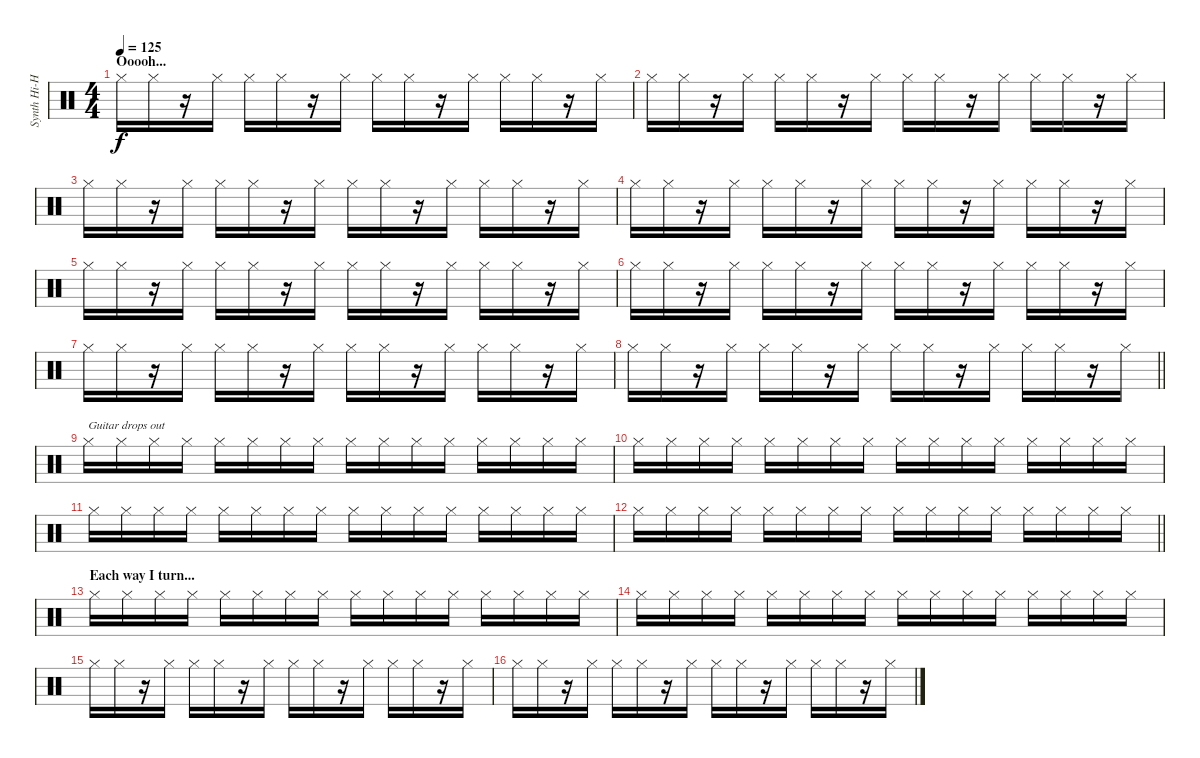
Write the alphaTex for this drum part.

\track ("Synth Hi-Hat (Gillian Gilbert)" "Synth Hi-H") {instrument percussion}
\staff {score}
\articulation defaults
\ts (4 4)
\section ("" "Ooooh...")
\tempo 125
\clef neutral
\ks c "Hi-Hat (closed)".16{dy f} "Hi-Hat (closed)".16
r.16 "Hi-Hat (closed)".16 "Hi-Hat (closed)".16 "Hi-Hat (closed)".16 r.16 "Hi-Hat (closed)".16 "Hi-Hat (closed)".16 "Hi-Hat (closed)".16 r.16 "Hi-Hat (closed)".16 "Hi-Hat (closed)".16 "Hi-Hat (closed)".16 r.16 "Hi-Hat (closed)".16 |
"Hi-Hat (closed)".16 "Hi-Hat (closed)".16 r.16 "Hi-Hat (closed)".16 "Hi-Hat (closed)".16 "Hi-Hat (closed)".16 r.16 "Hi-Hat (closed)".16 "Hi-Hat (closed)".16 "Hi-Hat (closed)".16 r.16 "Hi-Hat (closed)".16 "Hi-Hat (closed)".16 "Hi-Hat (closed)".16 r.16 "Hi-Hat (closed)".16 |
"Hi-Hat (closed)".16 "Hi-Hat (closed)".16 r.16 "Hi-Hat (closed)".16 "Hi-Hat (closed)".16 "Hi-Hat (closed)".16 r.16 "Hi-Hat (closed)".16 "Hi-Hat (closed)".16 "Hi-Hat (closed)".16 r.16 "Hi-Hat (closed)".16 "Hi-Hat (closed)".16 "Hi-Hat (closed)".16 r.16 "Hi-Hat (closed)".16 |
"Hi-Hat (closed)".16 "Hi-Hat (closed)".16 r.16 "Hi-Hat (closed)".16 "Hi-Hat (closed)".16 "Hi-Hat (closed)".16 r.16 "Hi-Hat (closed)".16 "Hi-Hat (closed)".16 "Hi-Hat (closed)".16 r.16 "Hi-Hat (closed)".16 "Hi-Hat (closed)".16 "Hi-Hat (closed)".16 r.16 "Hi-Hat (closed)".16 |
"Hi-Hat (closed)".16 "Hi-Hat (closed)".16 r.16 "Hi-Hat (closed)".16 "Hi-Hat (closed)".16 "Hi-Hat (closed)".16 r.16 "Hi-Hat (closed)".16 "Hi-Hat (closed)".16 "Hi-Hat (closed)".16 r.16 "Hi-Hat (closed)".16 "Hi-Hat (closed)".16 "Hi-Hat (closed)".16 r.16 "Hi-Hat (closed)".16 |
"Hi-Hat (closed)".16 "Hi-Hat (closed)".16 r.16 "Hi-Hat (closed)".16 "Hi-Hat (closed)".16 "Hi-Hat (closed)".16 r.16 "Hi-Hat (closed)".16 "Hi-Hat (closed)".16 "Hi-Hat (closed)".16 r.16 "Hi-Hat (closed)".16 "Hi-Hat (closed)".16 "Hi-Hat (closed)".16 r.16 "Hi-Hat (closed)".16 |
"Hi-Hat (closed)".16 "Hi-Hat (closed)".16 r.16 "Hi-Hat (closed)".16 "Hi-Hat (closed)".16 "Hi-Hat (closed)".16 r.16 "Hi-Hat (closed)".16 "Hi-Hat (closed)".16 "Hi-Hat (closed)".16 r.16 "Hi-Hat (closed)".16 "Hi-Hat (closed)".16 "Hi-Hat (closed)".16 r.16 "Hi-Hat (closed)".16 |
\barLineRight lightlight "Hi-Hat (closed)".16 "Hi-Hat (closed)".16
r.16 "Hi-Hat (closed)".16 "Hi-Hat (closed)".16 "Hi-Hat (closed)".16 r.16 "Hi-Hat (closed)".16 "Hi-Hat (closed)".16 "Hi-Hat (closed)".16 r.16 "Hi-Hat (closed)".16 "Hi-Hat (closed)".16 "Hi-Hat (closed)".16 r.16 "Hi-Hat (closed)".16 |
"Hi-Hat (closed)".16{txt "Guitar drops out"} "Hi-Hat (closed)".16 "Hi-Hat (closed)".16 "Hi-Hat (closed)".16 "Hi-Hat (closed)".16 "Hi-Hat (closed)".16 "Hi-Hat (closed)".16 "Hi-Hat (closed)".16 "Hi-Hat (closed)".16 "Hi-Hat (closed)".16 "Hi-Hat (closed)".16 "Hi-Hat (closed)".16 "Hi-Hat (closed)".16 "Hi-Hat (closed)".16 "Hi-Hat (closed)".16 "Hi-Hat (closed)".16 |
"Hi-Hat (closed)".16 "Hi-Hat (closed)".16 "Hi-Hat (closed)".16 "Hi-Hat (closed)".16 "Hi-Hat (closed)".16 "Hi-Hat (closed)".16 "Hi-Hat (closed)".16 "Hi-Hat (closed)".16 "Hi-Hat (closed)".16 "Hi-Hat (closed)".16 "Hi-Hat (closed)".16 "Hi-Hat (closed)".16 "Hi-Hat (closed)".16 "Hi-Hat (closed)".16 "Hi-Hat (closed)".16 "Hi-Hat (closed)".16 |
"Hi-Hat (closed)".16 "Hi-Hat (closed)".16 "Hi-Hat (closed)".16 "Hi-Hat (closed)".16 "Hi-Hat (closed)".16 "Hi-Hat (closed)".16 "Hi-Hat (closed)".16 "Hi-Hat (closed)".16 "Hi-Hat (closed)".16 "Hi-Hat (closed)".16 "Hi-Hat (closed)".16 "Hi-Hat (closed)".16 "Hi-Hat (closed)".16 "Hi-Hat (closed)".16 "Hi-Hat (closed)".16 "Hi-Hat (closed)".16 |
\barLineRight lightlight "Hi-Hat (closed)".16 "Hi-Hat (closed)".16 "Hi-Hat (closed)".16 "Hi-Hat (closed)".16 "Hi-Hat (closed)".16 "Hi-Hat (closed)".16 "Hi-Hat (closed)".16 "Hi-Hat (closed)".16 "Hi-Hat (closed)".16 "Hi-Hat (closed)".16 "Hi-Hat (closed)".16 "Hi-Hat (closed)".16 "Hi-Hat (closed)".16 "Hi-Hat (closed)".16 "Hi-Hat (closed)".16 "Hi-Hat (closed)".16
|
\section ("" "Each way I turn...")
"Hi-Hat (closed)".16 "Hi-Hat (closed)".16 "Hi-Hat (closed)".16 "Hi-Hat (closed)".16 "Hi-Hat (closed)".16 "Hi-Hat (closed)".16 "Hi-Hat (closed)".16 "Hi-Hat (closed)".16 "Hi-Hat (closed)".16 "Hi-Hat (closed)".16 "Hi-Hat (closed)".16 "Hi-Hat (closed)".16 "Hi-Hat (closed)".16 "Hi-Hat (closed)".16 "Hi-Hat (closed)".16 "Hi-Hat (closed)".16 |
"Hi-Hat (closed)".16 "Hi-Hat (closed)".16 "Hi-Hat (closed)".16 "Hi-Hat (closed)".16 "Hi-Hat (closed)".16 "Hi-Hat (closed)".16 "Hi-Hat (closed)".16 "Hi-Hat (closed)".16 "Hi-Hat (closed)".16 "Hi-Hat (closed)".16 "Hi-Hat (closed)".16 "Hi-Hat (closed)".16 "Hi-Hat (closed)".16 "Hi-Hat (closed)".16 "Hi-Hat (closed)".16 "Hi-Hat (closed)".16 |
"Hi-Hat (closed)".16 "Hi-Hat (closed)".16 r.16 "Hi-Hat (closed)".16 "Hi-Hat (closed)".16 "Hi-Hat (closed)".16 r.16 "Hi-Hat (closed)".16 "Hi-Hat (closed)".16 "Hi-Hat (closed)".16 r.16 "Hi-Hat (closed)".16 "Hi-Hat (closed)".16 "Hi-Hat (closed)".16 r.16 "Hi-Hat (closed)".16 |
"Hi-Hat (closed)".16 "Hi-Hat (closed)".16 r.16 "Hi-Hat (closed)".16 "Hi-Hat (closed)".16 "Hi-Hat (closed)".16 r.16 "Hi-Hat (closed)".16 "Hi-Hat (closed)".16 "Hi-Hat (closed)".16 r.16 "Hi-Hat (closed)".16 "Hi-Hat (closed)".16 "Hi-Hat (closed)".16 r.16 "Hi-Hat (closed)".16
